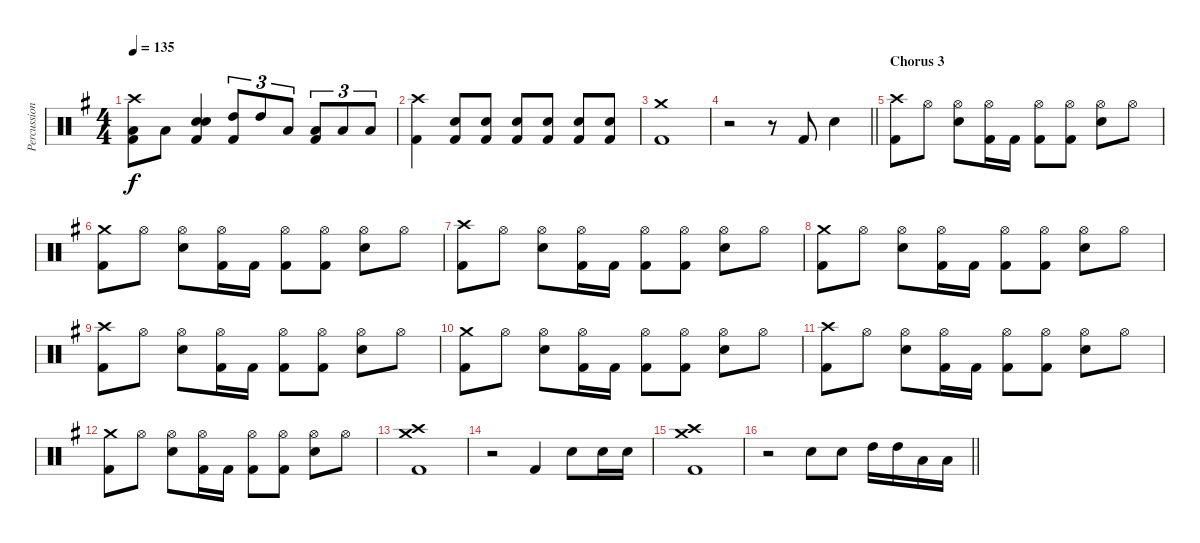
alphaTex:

\track ("Percussion" "Percussion") {instrument percussion}
\staff {score}
\articulation defaults
\ts (4 4)
\tempo 135
\clef neutral
\ks g
("Crash high (hit)" "Low Tom (hit)" "Kick (hit) 2").8{dy f} "Low Tom (hit)".8 ("Electric Snare (hit)" "Electric Snare (hit)" "Kick (hit) 2").4 ("High Tom (hit)" "Kick (hit) 2").8{tu (3 2)} "High Tom (hit)".8{tu (3 2)} "Low Tom (hit)".8{tu (3 2)} ("Low Tom (hit)" "Kick (hit) 2").8{tu (3 2)} "Low Floor Tom (hit)".8{tu (3 2)} "Low Floor Tom (hit)".8{tu (3 2)} |
("Crash high (hit)" "Kick (hit) 2").4 ("Electric Snare (hit)" "Kick (hit) 2").8 ("Electric Snare (hit)" "Kick (hit) 2").8 ("Electric Snare (hit)" "Kick (hit) 2").8 ("Electric Snare (hit)" "Kick (hit) 2").8 ("Electric Snare (hit)" "Kick (hit) 2").8 ("Electric Snare (hit)" "Kick (hit) 2").8 |
("Crash medium (hit)" "Kick (hit) 2").1 |
\barLineRight lightlight
r.2 r.8 "Kick (hit) 2".8 "Electric Snare (hit)".4 |
\section ("" "Chorus 3")
("Crash high (hit)" "Kick (hit) 2").8 "Hi-Hat (open)".8 ("Hi-Hat (open)" "Electric Snare (hit)").8 ("Hi-Hat (open)" "Kick (hit) 2").16 "Kick (hit) 2".16 ("Hi-Hat (open)" "Kick (hit) 2").8 ("Hi-Hat (open)" "Kick (hit) 2").8 ("Hi-Hat (open)" "Electric Snare (hit)").8 "Hi-Hat (open)".8 |
("Crash medium (hit)" "Kick (hit) 2").8 "Hi-Hat (open)".8 ("Hi-Hat (open)" "Electric Snare (hit)").8 ("Hi-Hat (open)" "Kick (hit) 2").16 "Kick (hit) 2".16 ("Hi-Hat (open)" "Kick (hit) 2").8 ("Hi-Hat (open)" "Kick (hit) 2").8 ("Hi-Hat (open)" "Electric Snare (hit)").8 "Hi-Hat (open)".8 |
("Crash high (hit)" "Kick (hit) 2").8 "Hi-Hat (open)".8 ("Hi-Hat (open)" "Electric Snare (hit)").8 ("Hi-Hat (open)" "Kick (hit) 2").16 "Kick (hit) 2".16 ("Hi-Hat (open)" "Kick (hit) 2").8 ("Hi-Hat (open)" "Kick (hit) 2").8 ("Hi-Hat (open)" "Electric Snare (hit)").8 "Hi-Hat (open)".8 |
("Crash medium (hit)" "Kick (hit) 2").8 "Hi-Hat (open)".8 ("Hi-Hat (open)" "Electric Snare (hit)").8 ("Hi-Hat (open)" "Kick (hit) 2").16 "Kick (hit) 2".16 ("Hi-Hat (open)" "Kick (hit) 2").8 ("Hi-Hat (open)" "Kick (hit) 2").8 ("Hi-Hat (open)" "Electric Snare (hit)").8 "Hi-Hat (open)".8 |
("Crash high (hit)" "Kick (hit) 2").8 "Hi-Hat (open)".8 ("Hi-Hat (open)" "Electric Snare (hit)").8 ("Hi-Hat (open)" "Kick (hit) 2").16 "Kick (hit) 2".16 ("Hi-Hat (open)" "Kick (hit) 2").8 ("Hi-Hat (open)" "Kick (hit) 2").8 ("Hi-Hat (open)" "Electric Snare (hit)").8 "Hi-Hat (open)".8 |
("Crash medium (hit)" "Kick (hit) 2").8 "Hi-Hat (open)".8 ("Hi-Hat (open)" "Electric Snare (hit)").8 ("Hi-Hat (open)" "Kick (hit) 2").16 "Kick (hit) 2".16 ("Hi-Hat (open)" "Kick (hit) 2").8 ("Hi-Hat (open)" "Kick (hit) 2").8 ("Hi-Hat (open)" "Electric Snare (hit)").8 "Hi-Hat (open)".8 |
("Crash high (hit)" "Kick (hit) 2").8 "Hi-Hat (open)".8 ("Hi-Hat (open)" "Electric Snare (hit)").8 ("Hi-Hat (open)" "Kick (hit) 2").16 "Kick (hit) 2".16 ("Hi-Hat (open)" "Kick (hit) 2").8 ("Hi-Hat (open)" "Kick (hit) 2").8 ("Hi-Hat (open)" "Electric Snare (hit)").8 "Hi-Hat (open)".8 |
("Crash medium (hit)" "Kick (hit) 2").8 "Hi-Hat (open)".8 ("Hi-Hat (open)" "Electric Snare (hit)").8 ("Hi-Hat (open)" "Kick (hit) 2").16 "Kick (hit) 2".16 ("Hi-Hat (open)" "Kick (hit) 2").8 ("Hi-Hat (open)" "Kick (hit) 2").8 ("Hi-Hat (open)" "Electric Snare (hit)").8 "Hi-Hat (open)".8 |
("Crash high (hit)" "Crash medium (hit)" "Kick (hit) 2").1 |
r.2 "Kick (hit) 2".4 "Electric Snare (hit)".8 "Electric Snare (hit)".16 "Electric Snare (hit)".16 |
("Crash high (hit)" "Crash medium (hit)" "Kick (hit) 2").1 |
\barLineRight lightlight
r.2 "Electric Snare (hit)".8 "Electric Snare (hit)".8 "High Tom (hit)".16 "High Tom (hit)".16 "Low Tom (hit)".16 "Low Tom (hit)".16
